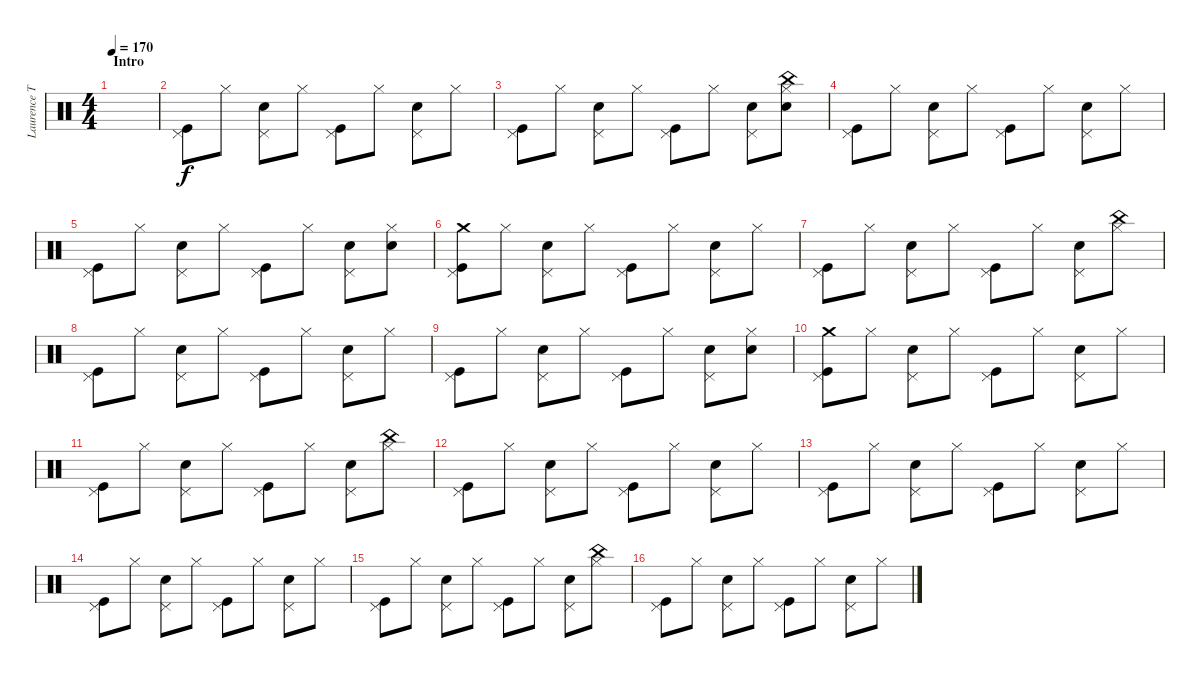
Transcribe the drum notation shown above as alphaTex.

\track ("Laurence Tolhurst (drums)" "Laurence T") {instrument percussion}
\staff {score}
\articulation defaults
\ts (4 4)
\section ("" "Intro")
\tempo 170
\clef neutral
\ks c
|
("Pedal Hi-Hat (hit)" "Kick (hit)").8 "Hi-Hat (closed)".8 ("Pedal Hi-Hat (hit)" "Snare (hit) 2").8 "Hi-Hat (closed)".8 ("Pedal Hi-Hat (hit)" "Kick (hit)").8 "Hi-Hat (closed)".8 ("Pedal Hi-Hat (hit)" "Snare (hit) 2").8 "Hi-Hat (closed)".8 |
("Pedal Hi-Hat (hit)" "Kick (hit)").8 "Hi-Hat (closed)".8 ("Pedal Hi-Hat (hit)" "Snare (hit) 2").8 "Hi-Hat (closed)".8 ("Pedal Hi-Hat (hit)" "Kick (hit)").8 "Hi-Hat (closed)".8 ("Pedal Hi-Hat (hit)" "Snare (hit) 2").8 ("China (hit)" "Hi-Hat (closed)" "Snare (hit) 2").8 |
("Pedal Hi-Hat (hit)" "Kick (hit)").8 "Hi-Hat (closed)".8 ("Pedal Hi-Hat (hit)" "Snare (hit) 2").8 "Hi-Hat (closed)".8 ("Pedal Hi-Hat (hit)" "Kick (hit)").8 "Hi-Hat (closed)".8 ("Pedal Hi-Hat (hit)" "Snare (hit) 2").8 "Hi-Hat (closed)".8 |
("Pedal Hi-Hat (hit)" "Kick (hit)").8 "Hi-Hat (closed)".8 ("Pedal Hi-Hat (hit)" "Snare (hit) 2").8 "Hi-Hat (closed)".8 ("Pedal Hi-Hat (hit)" "Kick (hit)").8 "Hi-Hat (closed)".8 ("Pedal Hi-Hat (hit)" "Snare (hit) 2").8 ("Hi-Hat (closed)" "Snare (hit) 2").8 |
("Crash medium (hit)" "Pedal Hi-Hat (hit)" "Kick (hit)").8 "Hi-Hat (closed)".8 ("Pedal Hi-Hat (hit)" "Snare (hit) 2").8 "Hi-Hat (closed)".8 ("Pedal Hi-Hat (hit)" "Kick (hit)").8 "Hi-Hat (closed)".8 ("Pedal Hi-Hat (hit)" "Snare (hit) 2").8 "Hi-Hat (closed)".8 |
("Pedal Hi-Hat (hit)" "Kick (hit)").8 "Hi-Hat (closed)".8 ("Pedal Hi-Hat (hit)" "Snare (hit) 2").8 "Hi-Hat (closed)".8 ("Pedal Hi-Hat (hit)" "Kick (hit)").8 "Hi-Hat (closed)".8 ("Pedal Hi-Hat (hit)" "Snare (hit) 2").8 ("China (hit)" "Hi-Hat (closed)").8 |
("Pedal Hi-Hat (hit)" "Kick (hit)").8 "Hi-Hat (closed)".8 ("Pedal Hi-Hat (hit)" "Snare (hit) 2").8 "Hi-Hat (closed)".8 ("Pedal Hi-Hat (hit)" "Kick (hit)").8 "Hi-Hat (closed)".8 ("Pedal Hi-Hat (hit)" "Snare (hit) 2").8 "Hi-Hat (closed)".8 |
("Pedal Hi-Hat (hit)" "Kick (hit)").8 "Hi-Hat (closed)".8 ("Pedal Hi-Hat (hit)" "Snare (hit) 2").8 "Hi-Hat (closed)".8 ("Pedal Hi-Hat (hit)" "Kick (hit)").8 "Hi-Hat (closed)".8 ("Pedal Hi-Hat (hit)" "Snare (hit) 2").8 ("Hi-Hat (closed)" "Snare (hit) 2").8 |
("Crash medium (hit)" "Pedal Hi-Hat (hit)" "Kick (hit)").8 "Hi-Hat (closed)".8 ("Pedal Hi-Hat (hit)" "Snare (hit) 2").8 "Hi-Hat (closed)".8 ("Pedal Hi-Hat (hit)" "Kick (hit)").8 "Hi-Hat (closed)".8 ("Pedal Hi-Hat (hit)" "Snare (hit) 2").8 "Hi-Hat (closed)".8 |
("Pedal Hi-Hat (hit)" "Kick (hit)").8 "Hi-Hat (closed)".8 ("Pedal Hi-Hat (hit)" "Snare (hit) 2").8 "Hi-Hat (closed)".8 ("Pedal Hi-Hat (hit)" "Kick (hit)").8 "Hi-Hat (closed)".8 ("Pedal Hi-Hat (hit)" "Snare (hit) 2").8 ("China (hit)" "Hi-Hat (closed)").8 |
("Pedal Hi-Hat (hit)" "Kick (hit)").8 "Hi-Hat (closed)".8 ("Pedal Hi-Hat (hit)" "Snare (hit) 2").8 "Hi-Hat (closed)".8 ("Pedal Hi-Hat (hit)" "Kick (hit)").8 "Hi-Hat (closed)".8 ("Pedal Hi-Hat (hit)" "Snare (hit) 2").8 "Hi-Hat (closed)".8 |
("Pedal Hi-Hat (hit)" "Kick (hit)").8 "Hi-Hat (closed)".8 ("Pedal Hi-Hat (hit)" "Snare (hit) 2").8 "Hi-Hat (closed)".8 ("Pedal Hi-Hat (hit)" "Kick (hit)").8 "Hi-Hat (closed)".8 ("Pedal Hi-Hat (hit)" "Snare (hit) 2").8 "Hi-Hat (closed)".8 |
("Pedal Hi-Hat (hit)" "Kick (hit)").8 "Hi-Hat (closed)".8 ("Pedal Hi-Hat (hit)" "Snare (hit) 2").8 "Hi-Hat (closed)".8 ("Pedal Hi-Hat (hit)" "Kick (hit)").8 "Hi-Hat (closed)".8 ("Pedal Hi-Hat (hit)" "Snare (hit) 2").8 "Hi-Hat (closed)".8 |
("Pedal Hi-Hat (hit)" "Kick (hit)").8 "Hi-Hat (closed)".8 ("Pedal Hi-Hat (hit)" "Snare (hit) 2").8 "Hi-Hat (closed)".8 ("Pedal Hi-Hat (hit)" "Kick (hit)").8 "Hi-Hat (closed)".8 ("Pedal Hi-Hat (hit)" "Snare (hit) 2").8 ("China (hit)" "Hi-Hat (closed)").8 |
("Pedal Hi-Hat (hit)" "Kick (hit)").8 "Hi-Hat (closed)".8 ("Pedal Hi-Hat (hit)" "Snare (hit) 2").8 "Hi-Hat (closed)".8 ("Pedal Hi-Hat (hit)" "Kick (hit)").8 "Hi-Hat (closed)".8 ("Pedal Hi-Hat (hit)" "Snare (hit) 2").8 "Hi-Hat (closed)".8
